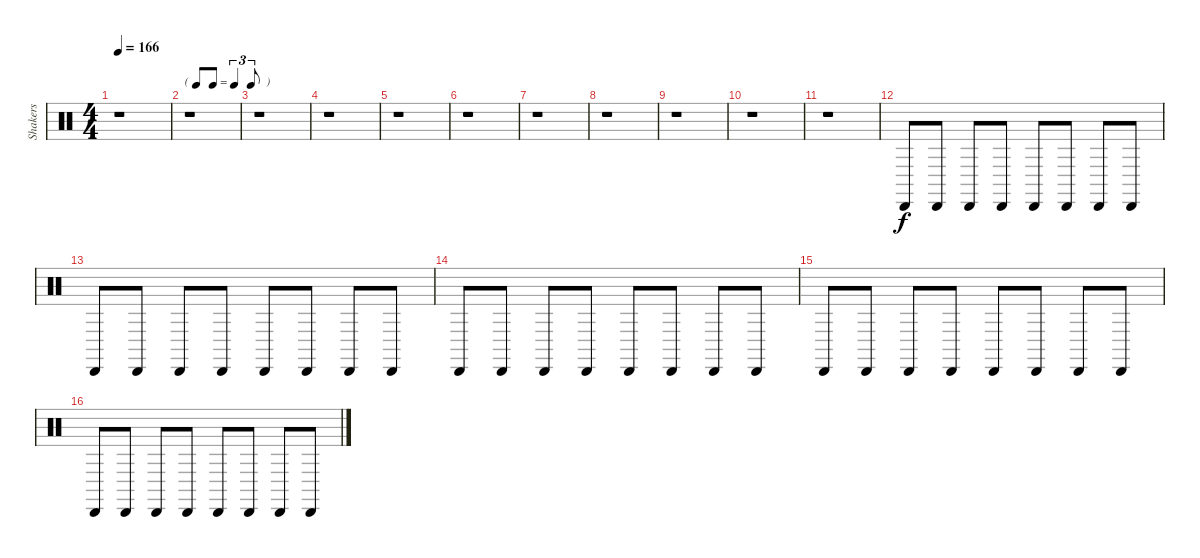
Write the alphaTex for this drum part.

\track ("Shakers" "Shakers") {instrument percussion}
\staff {score}
\articulation defaults
\ts (4 4)
\tempo 166
\clef neutral
\ks c
r.1{dy f} |
\tf triplet8th
r.1 |
r.1 |
r.1 |
r.1 |
r.1 |
r.1 |
r.1 |
r.1 |
r.1 |
r.1 |
"Cabasa (hit)".8 "Cabasa (hit)".8 "Cabasa (hit)".8 "Cabasa (hit)".8 "Cabasa (hit)".8 "Cabasa (hit)".8 "Cabasa (hit)".8 "Cabasa (hit)".8 |
"Cabasa (hit)".8 "Cabasa (hit)".8 "Cabasa (hit)".8 "Cabasa (hit)".8 "Cabasa (hit)".8 "Cabasa (hit)".8 "Cabasa (hit)".8 "Cabasa (hit)".8 |
"Cabasa (hit)".8 "Cabasa (hit)".8 "Cabasa (hit)".8 "Cabasa (hit)".8 "Cabasa (hit)".8 "Cabasa (hit)".8 "Cabasa (hit)".8 "Cabasa (hit)".8 |
"Cabasa (hit)".8 "Cabasa (hit)".8 "Cabasa (hit)".8 "Cabasa (hit)".8 "Cabasa (hit)".8 "Cabasa (hit)".8 "Cabasa (hit)".8 "Cabasa (hit)".8 |
"Cabasa (hit)".8 "Cabasa (hit)".8 "Cabasa (hit)".8 "Cabasa (hit)".8 "Cabasa (hit)".8 "Cabasa (hit)".8 "Cabasa (hit)".8 "Cabasa (hit)".8
